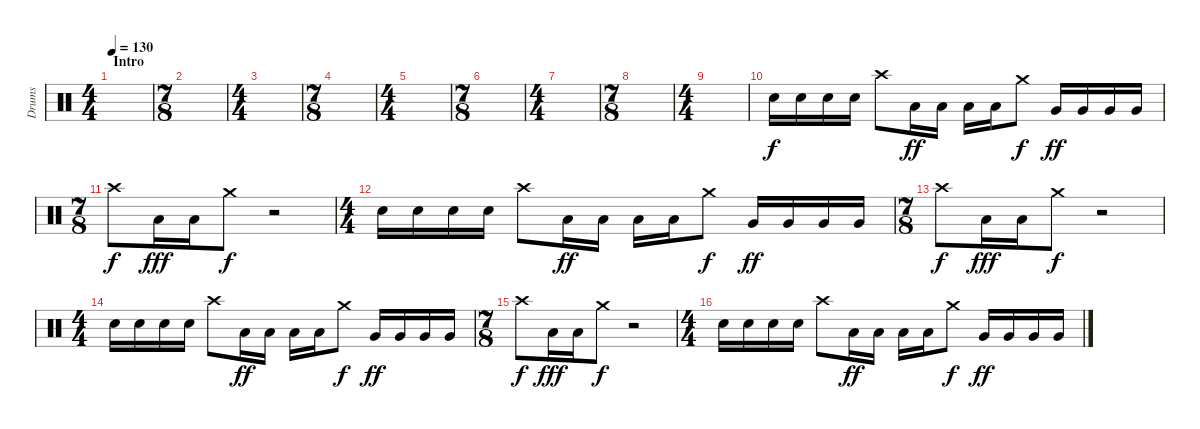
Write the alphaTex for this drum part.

\track ("Drums" "Drums") {instrument percussion}
\staff {score}
\articulation defaults
\ts (4 4)
\section ("" "Intro")
\tempo 130
\clef neutral
\ks c
|
\ts (7 8)
|
\ts (4 4)
|
\ts (7 8)
|
\ts (4 4)
|
\ts (7 8)
|
\ts (4 4)
|
\ts (7 8)
|
\ts (4 4)
|
"Electric Snare (hit)".16 "Electric Snare (hit)".16 "Electric Snare (hit)".16 "Electric Snare (hit)".16 "Crash high (hit)".8 "Low Tom (hit)".16{dy ff} "Low Tom (hit)".16 "Low Tom (hit)".16 "Low Tom (hit)".16 "Crash medium (hit)".8{dy f} "Very Low Tom (hit)".16{dy ff} "Very Low Tom (hit)".16 "Very Low Tom (hit)".16 "Very Low Tom (hit)".16 |
\ts (7 8)
"Crash high (hit)".8{dy f} "Low Floor Tom (hit)".16{dy fff} "Low Floor Tom (hit)".16 "Crash medium (hit)".8{dy f} r.2 |
\ts (4 4)
"Electric Snare (hit)".16 "Electric Snare (hit)".16 "Electric Snare (hit)".16 "Electric Snare (hit)".16 "Crash high (hit)".8 "Low Tom (hit)".16{dy ff} "Low Tom (hit)".16 "Low Tom (hit)".16 "Low Tom (hit)".16 "Crash medium (hit)".8{dy f} "Very Low Tom (hit)".16{dy ff} "Very Low Tom (hit)".16 "Very Low Tom (hit)".16 "Very Low Tom (hit)".16 |
\ts (7 8)
"Crash high (hit)".8{dy f} "Low Floor Tom (hit)".16{dy fff} "Low Floor Tom (hit)".16 "Crash medium (hit)".8{dy f} r.2 |
\ts (4 4)
"Electric Snare (hit)".16 "Electric Snare (hit)".16 "Electric Snare (hit)".16 "Electric Snare (hit)".16 "Crash high (hit)".8 "Low Tom (hit)".16{dy ff} "Low Tom (hit)".16 "Low Tom (hit)".16 "Low Tom (hit)".16 "Crash medium (hit)".8{dy f} "Very Low Tom (hit)".16{dy ff} "Very Low Tom (hit)".16 "Very Low Tom (hit)".16 "Very Low Tom (hit)".16 |
\ts (7 8)
"Crash high (hit)".8{dy f} "Low Floor Tom (hit)".16{dy fff} "Low Floor Tom (hit)".16 "Crash medium (hit)".8{dy f} r.2 |
\ts (4 4)
"Electric Snare (hit)".16 "Electric Snare (hit)".16 "Electric Snare (hit)".16 "Electric Snare (hit)".16 "Crash high (hit)".8 "Low Tom (hit)".16{dy ff} "Low Tom (hit)".16 "Low Tom (hit)".16 "Low Tom (hit)".16 "Crash medium (hit)".8{dy f} "Very Low Tom (hit)".16{dy ff} "Very Low Tom (hit)".16 "Very Low Tom (hit)".16 "Very Low Tom (hit)".16
